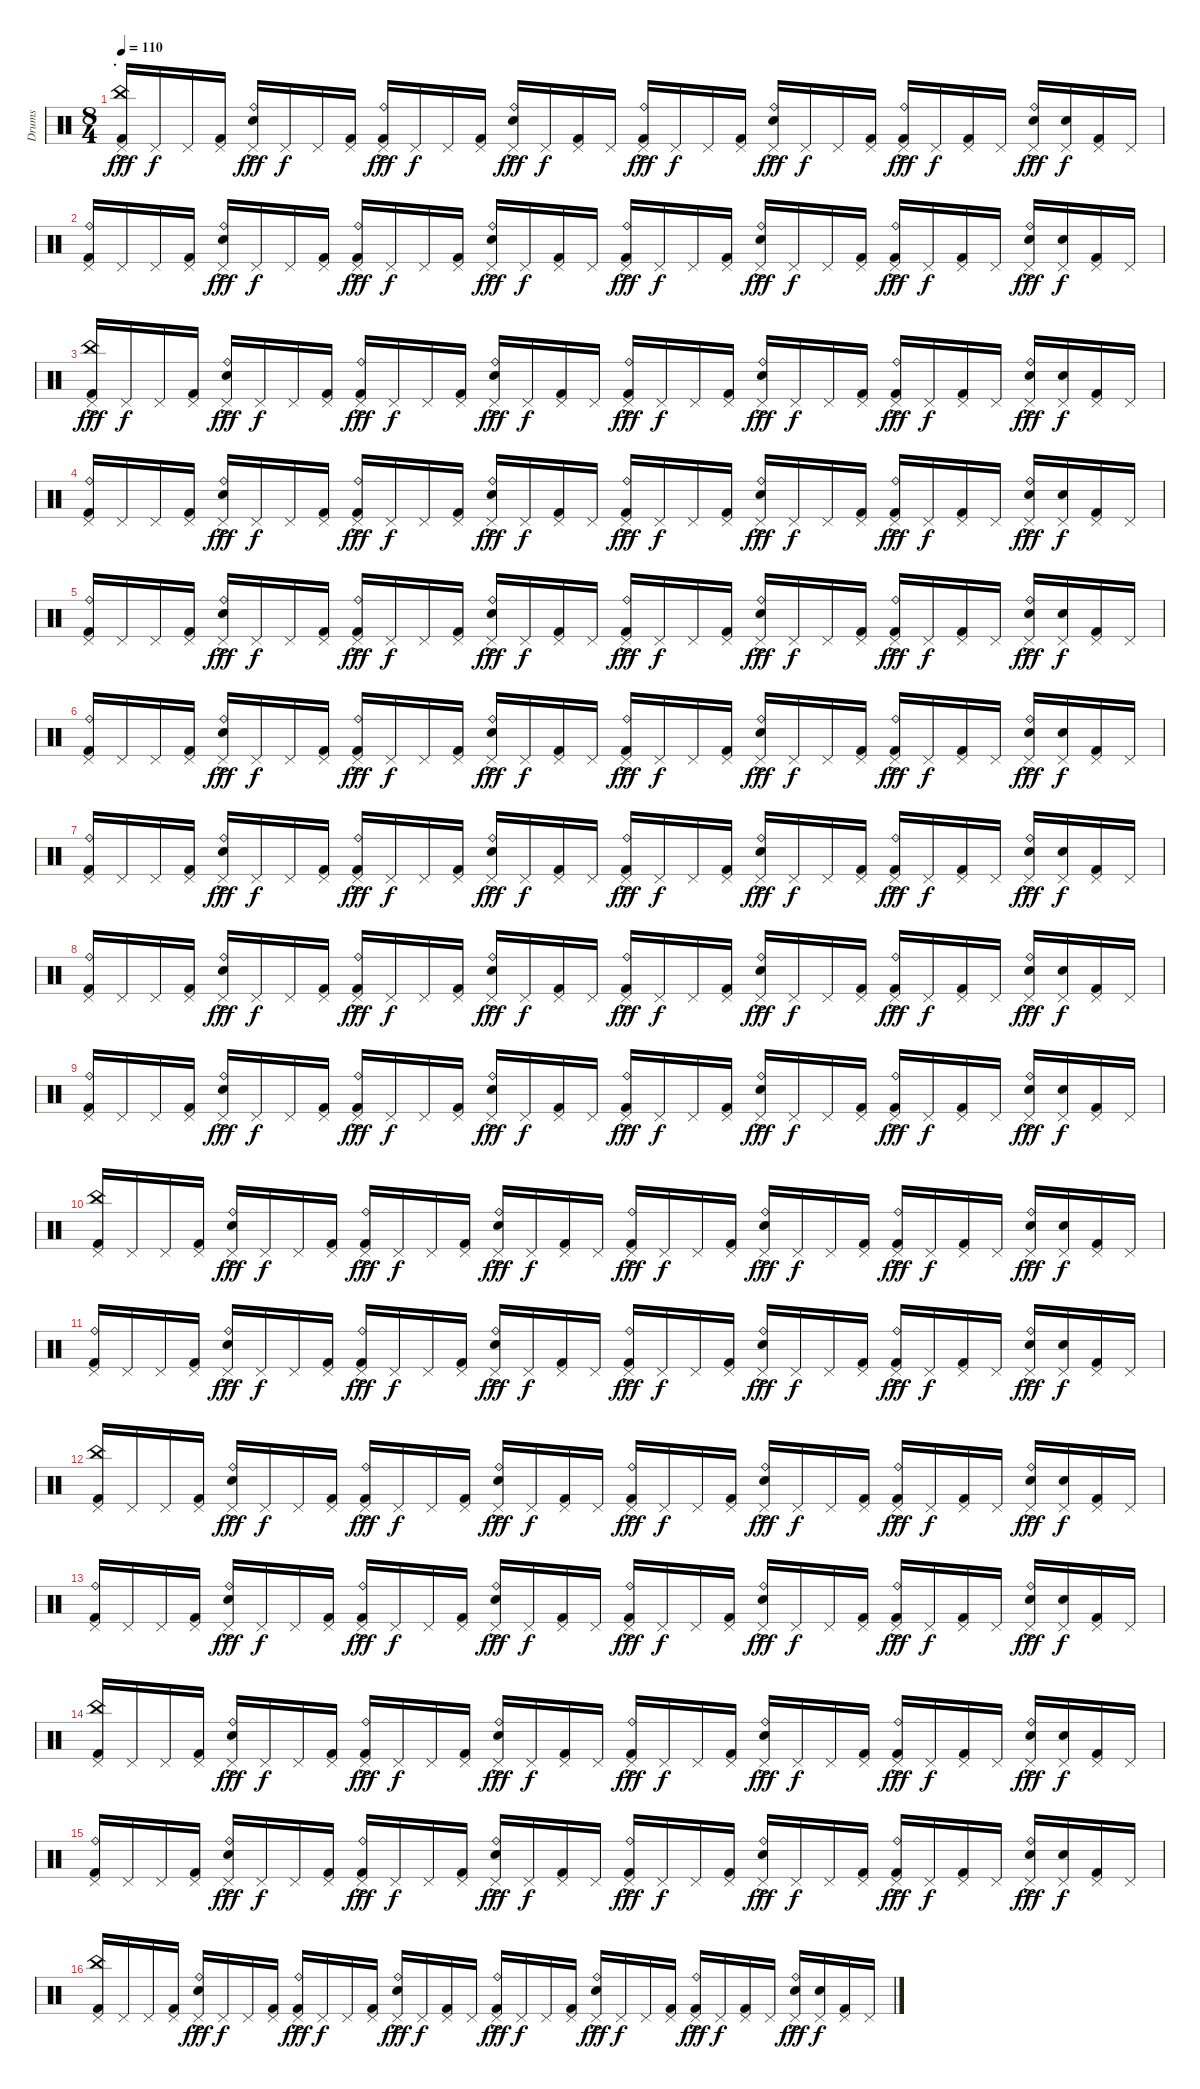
\track ("Drums" "Drums") {instrument percussion}
\staff {score}
\articulation defaults
\ts (8 4)
\section ("" ".")
\tempo 110
\clef neutral
\ks c
("Kick (hit) 2" "China (hit)"{ac} "Pedal Hi-Hat (hit)").16{dy fff} "Pedal Hi-Hat (hit)".16{dy f} "Pedal Hi-Hat (hit)".16 ("Kick (hit) 2" "Pedal Hi-Hat (hit)").16 ("Electric Snare (hit)" "Ride (bell)"{ac} "Pedal Hi-Hat (hit)").16{dy fff} "Pedal Hi-Hat (hit)".16{dy f} "Pedal Hi-Hat (hit)".16 ("Kick (hit) 2" "Pedal Hi-Hat (hit)").16 ("Kick (hit) 2" "Ride (bell)"{ac} "Pedal Hi-Hat (hit)").16{dy fff} "Pedal Hi-Hat (hit)".16{dy f} "Pedal Hi-Hat (hit)".16 ("Kick (hit) 2" "Pedal Hi-Hat (hit)").16 ("Electric Snare (hit)" "Ride (bell)"{ac} "Pedal Hi-Hat (hit)").16{dy fff} "Pedal Hi-Hat (hit)".16{dy f} ("Kick (hit) 2" "Pedal Hi-Hat (hit)").16 "Pedal Hi-Hat (hit)".16 ("Kick (hit) 2" "Ride (bell)"{ac} "Pedal Hi-Hat (hit)").16{dy fff} "Pedal Hi-Hat (hit)".16{dy f} "Pedal Hi-Hat (hit)".16 ("Kick (hit) 2" "Pedal Hi-Hat (hit)").16 ("Electric Snare (hit)" "Ride (bell)"{ac} "Pedal Hi-Hat (hit)").16{dy fff} "Pedal Hi-Hat (hit)".16{dy f} "Pedal Hi-Hat (hit)".16 ("Kick (hit) 2" "Pedal Hi-Hat (hit)").16 ("Kick (hit) 2" "Ride (bell)"{ac} "Pedal Hi-Hat (hit)").16{dy fff} "Pedal Hi-Hat (hit)".16{dy f} ("Kick (hit) 2" "Pedal Hi-Hat (hit)").16 "Pedal Hi-Hat (hit)".16 ("Electric Snare (hit)" "Ride (bell)"{ac} "Pedal Hi-Hat (hit)").16{dy fff} ("Electric Snare (hit)" "Pedal Hi-Hat (hit)").16{dy f} ("Kick (hit) 2" "Pedal Hi-Hat (hit)").16 "Pedal Hi-Hat (hit)".16 |
("Kick (hit) 2" "Ride (bell)" "Pedal Hi-Hat (hit)").16 "Pedal Hi-Hat (hit)".16 "Pedal Hi-Hat (hit)".16 ("Kick (hit) 2" "Pedal Hi-Hat (hit)").16 ("Electric Snare (hit)" "Ride (bell)"{ac} "Pedal Hi-Hat (hit)").16{dy fff} "Pedal Hi-Hat (hit)".16{dy f} "Pedal Hi-Hat (hit)".16 ("Kick (hit) 2" "Pedal Hi-Hat (hit)").16 ("Kick (hit) 2" "Ride (bell)"{ac} "Pedal Hi-Hat (hit)").16{dy fff} "Pedal Hi-Hat (hit)".16{dy f} "Pedal Hi-Hat (hit)".16 ("Kick (hit) 2" "Pedal Hi-Hat (hit)").16 ("Electric Snare (hit)" "Ride (bell)"{ac} "Pedal Hi-Hat (hit)").16{dy fff} "Pedal Hi-Hat (hit)".16{dy f} ("Kick (hit) 2" "Pedal Hi-Hat (hit)").16 "Pedal Hi-Hat (hit)".16 ("Kick (hit) 2" "Ride (bell)"{ac} "Pedal Hi-Hat (hit)").16{dy fff} "Pedal Hi-Hat (hit)".16{dy f} "Pedal Hi-Hat (hit)".16 ("Kick (hit) 2" "Pedal Hi-Hat (hit)").16 ("Electric Snare (hit)" "Ride (bell)"{ac} "Pedal Hi-Hat (hit)").16{dy fff} "Pedal Hi-Hat (hit)".16{dy f} "Pedal Hi-Hat (hit)".16 ("Kick (hit) 2" "Pedal Hi-Hat (hit)").16 ("Kick (hit) 2" "Ride (bell)"{ac} "Pedal Hi-Hat (hit)").16{dy fff} "Pedal Hi-Hat (hit)".16{dy f} ("Kick (hit) 2" "Pedal Hi-Hat (hit)").16 "Pedal Hi-Hat (hit)".16 ("Electric Snare (hit)" "Ride (bell)"{ac} "Pedal Hi-Hat (hit)").16{dy fff} ("Electric Snare (hit)" "Pedal Hi-Hat (hit)").16{dy f} ("Kick (hit) 2" "Pedal Hi-Hat (hit)").16 "Pedal Hi-Hat (hit)".16 |
("Kick (hit) 2" "China (hit)"{ac} "Pedal Hi-Hat (hit)").16{dy fff} "Pedal Hi-Hat (hit)".16{dy f} "Pedal Hi-Hat (hit)".16 ("Kick (hit) 2" "Pedal Hi-Hat (hit)").16 ("Electric Snare (hit)" "Ride (bell)"{ac} "Pedal Hi-Hat (hit)").16{dy fff} "Pedal Hi-Hat (hit)".16{dy f} "Pedal Hi-Hat (hit)".16 ("Kick (hit) 2" "Pedal Hi-Hat (hit)").16 ("Kick (hit) 2" "Ride (bell)"{ac} "Pedal Hi-Hat (hit)").16{dy fff} "Pedal Hi-Hat (hit)".16{dy f} "Pedal Hi-Hat (hit)".16 ("Kick (hit) 2" "Pedal Hi-Hat (hit)").16 ("Electric Snare (hit)" "Ride (bell)"{ac} "Pedal Hi-Hat (hit)").16{dy fff} "Pedal Hi-Hat (hit)".16{dy f} ("Kick (hit) 2" "Pedal Hi-Hat (hit)").16 "Pedal Hi-Hat (hit)".16 ("Kick (hit) 2" "Ride (bell)"{ac} "Pedal Hi-Hat (hit)").16{dy fff} "Pedal Hi-Hat (hit)".16{dy f} "Pedal Hi-Hat (hit)".16 ("Kick (hit) 2" "Pedal Hi-Hat (hit)").16 ("Electric Snare (hit)" "Ride (bell)"{ac} "Pedal Hi-Hat (hit)").16{dy fff} "Pedal Hi-Hat (hit)".16{dy f} "Pedal Hi-Hat (hit)".16 ("Kick (hit) 2" "Pedal Hi-Hat (hit)").16 ("Kick (hit) 2" "Ride (bell)"{ac} "Pedal Hi-Hat (hit)").16{dy fff} "Pedal Hi-Hat (hit)".16{dy f} ("Kick (hit) 2" "Pedal Hi-Hat (hit)").16 "Pedal Hi-Hat (hit)".16 ("Electric Snare (hit)" "Ride (bell)"{ac} "Pedal Hi-Hat (hit)").16{dy fff} ("Electric Snare (hit)" "Pedal Hi-Hat (hit)").16{dy f} ("Kick (hit) 2" "Pedal Hi-Hat (hit)").16 "Pedal Hi-Hat (hit)".16 |
("Kick (hit) 2" "Ride (bell)" "Pedal Hi-Hat (hit)").16 "Pedal Hi-Hat (hit)".16 "Pedal Hi-Hat (hit)".16 ("Kick (hit) 2" "Pedal Hi-Hat (hit)").16 ("Electric Snare (hit)" "Ride (bell)"{ac} "Pedal Hi-Hat (hit)").16{dy fff} "Pedal Hi-Hat (hit)".16{dy f} "Pedal Hi-Hat (hit)".16 ("Kick (hit) 2" "Pedal Hi-Hat (hit)").16 ("Kick (hit) 2" "Ride (bell)"{ac} "Pedal Hi-Hat (hit)").16{dy fff} "Pedal Hi-Hat (hit)".16{dy f} "Pedal Hi-Hat (hit)".16 ("Kick (hit) 2" "Pedal Hi-Hat (hit)").16 ("Electric Snare (hit)" "Ride (bell)"{ac} "Pedal Hi-Hat (hit)").16{dy fff} "Pedal Hi-Hat (hit)".16{dy f} ("Kick (hit) 2" "Pedal Hi-Hat (hit)").16 "Pedal Hi-Hat (hit)".16 ("Kick (hit) 2" "Ride (bell)"{ac} "Pedal Hi-Hat (hit)").16{dy fff} "Pedal Hi-Hat (hit)".16{dy f} "Pedal Hi-Hat (hit)".16 ("Kick (hit) 2" "Pedal Hi-Hat (hit)").16 ("Electric Snare (hit)" "Ride (bell)"{ac} "Pedal Hi-Hat (hit)").16{dy fff} "Pedal Hi-Hat (hit)".16{dy f} "Pedal Hi-Hat (hit)".16 ("Kick (hit) 2" "Pedal Hi-Hat (hit)").16 ("Kick (hit) 2" "Ride (bell)"{ac} "Pedal Hi-Hat (hit)").16{dy fff} "Pedal Hi-Hat (hit)".16{dy f} ("Kick (hit) 2" "Pedal Hi-Hat (hit)").16 "Pedal Hi-Hat (hit)".16 ("Electric Snare (hit)" "Ride (bell)"{ac} "Pedal Hi-Hat (hit)").16{dy fff} ("Electric Snare (hit)" "Pedal Hi-Hat (hit)").16{dy f} ("Kick (hit) 2" "Pedal Hi-Hat (hit)").16 "Pedal Hi-Hat (hit)".16 |
("Kick (hit) 2" "Ride (bell)" "Pedal Hi-Hat (hit)").16 "Pedal Hi-Hat (hit)".16 "Pedal Hi-Hat (hit)".16 ("Kick (hit) 2" "Pedal Hi-Hat (hit)").16 ("Electric Snare (hit)" "Ride (bell)"{ac} "Pedal Hi-Hat (hit)").16{dy fff} "Pedal Hi-Hat (hit)".16{dy f} "Pedal Hi-Hat (hit)".16 ("Kick (hit) 2" "Pedal Hi-Hat (hit)").16 ("Kick (hit) 2" "Ride (bell)"{ac} "Pedal Hi-Hat (hit)").16{dy fff} "Pedal Hi-Hat (hit)".16{dy f} "Pedal Hi-Hat (hit)".16 ("Kick (hit) 2" "Pedal Hi-Hat (hit)").16 ("Electric Snare (hit)" "Ride (bell)"{ac} "Pedal Hi-Hat (hit)").16{dy fff} "Pedal Hi-Hat (hit)".16{dy f} ("Kick (hit) 2" "Pedal Hi-Hat (hit)").16 "Pedal Hi-Hat (hit)".16 ("Kick (hit) 2" "Ride (bell)"{ac} "Pedal Hi-Hat (hit)").16{dy fff} "Pedal Hi-Hat (hit)".16{dy f} "Pedal Hi-Hat (hit)".16 ("Kick (hit) 2" "Pedal Hi-Hat (hit)").16 ("Electric Snare (hit)" "Ride (bell)"{ac} "Pedal Hi-Hat (hit)").16{dy fff} "Pedal Hi-Hat (hit)".16{dy f} "Pedal Hi-Hat (hit)".16 ("Kick (hit) 2" "Pedal Hi-Hat (hit)").16 ("Kick (hit) 2" "Ride (bell)"{ac} "Pedal Hi-Hat (hit)").16{dy fff} "Pedal Hi-Hat (hit)".16{dy f} ("Kick (hit) 2" "Pedal Hi-Hat (hit)").16 "Pedal Hi-Hat (hit)".16 ("Electric Snare (hit)" "Ride (bell)"{ac} "Pedal Hi-Hat (hit)").16{dy fff} ("Electric Snare (hit)" "Pedal Hi-Hat (hit)").16{dy f} ("Kick (hit) 2" "Pedal Hi-Hat (hit)").16 "Pedal Hi-Hat (hit)".16 |
("Kick (hit) 2" "Ride (bell)" "Pedal Hi-Hat (hit)").16 "Pedal Hi-Hat (hit)".16 "Pedal Hi-Hat (hit)".16 ("Kick (hit) 2" "Pedal Hi-Hat (hit)").16 ("Electric Snare (hit)" "Ride (bell)"{ac} "Pedal Hi-Hat (hit)").16{dy fff} "Pedal Hi-Hat (hit)".16{dy f} "Pedal Hi-Hat (hit)".16 ("Kick (hit) 2" "Pedal Hi-Hat (hit)").16 ("Kick (hit) 2" "Ride (bell)"{ac} "Pedal Hi-Hat (hit)").16{dy fff} "Pedal Hi-Hat (hit)".16{dy f} "Pedal Hi-Hat (hit)".16 ("Kick (hit) 2" "Pedal Hi-Hat (hit)").16 ("Electric Snare (hit)" "Ride (bell)"{ac} "Pedal Hi-Hat (hit)").16{dy fff} "Pedal Hi-Hat (hit)".16{dy f} ("Kick (hit) 2" "Pedal Hi-Hat (hit)").16 "Pedal Hi-Hat (hit)".16 ("Kick (hit) 2" "Ride (bell)"{ac} "Pedal Hi-Hat (hit)").16{dy fff} "Pedal Hi-Hat (hit)".16{dy f} "Pedal Hi-Hat (hit)".16 ("Kick (hit) 2" "Pedal Hi-Hat (hit)").16 ("Electric Snare (hit)" "Ride (bell)"{ac} "Pedal Hi-Hat (hit)").16{dy fff} "Pedal Hi-Hat (hit)".16{dy f} "Pedal Hi-Hat (hit)".16 ("Kick (hit) 2" "Pedal Hi-Hat (hit)").16 ("Kick (hit) 2" "Ride (bell)"{ac} "Pedal Hi-Hat (hit)").16{dy fff} "Pedal Hi-Hat (hit)".16{dy f} ("Kick (hit) 2" "Pedal Hi-Hat (hit)").16 "Pedal Hi-Hat (hit)".16 ("Electric Snare (hit)" "Ride (bell)"{ac} "Pedal Hi-Hat (hit)").16{dy fff} ("Electric Snare (hit)" "Pedal Hi-Hat (hit)").16{dy f} ("Kick (hit) 2" "Pedal Hi-Hat (hit)").16 "Pedal Hi-Hat (hit)".16 |
("Kick (hit) 2" "Ride (bell)" "Pedal Hi-Hat (hit)").16 "Pedal Hi-Hat (hit)".16 "Pedal Hi-Hat (hit)".16 ("Kick (hit) 2" "Pedal Hi-Hat (hit)").16 ("Electric Snare (hit)" "Ride (bell)"{ac} "Pedal Hi-Hat (hit)").16{dy fff} "Pedal Hi-Hat (hit)".16{dy f} "Pedal Hi-Hat (hit)".16 ("Kick (hit) 2" "Pedal Hi-Hat (hit)").16 ("Kick (hit) 2" "Ride (bell)"{ac} "Pedal Hi-Hat (hit)").16{dy fff} "Pedal Hi-Hat (hit)".16{dy f} "Pedal Hi-Hat (hit)".16 ("Kick (hit) 2" "Pedal Hi-Hat (hit)").16 ("Electric Snare (hit)" "Ride (bell)"{ac} "Pedal Hi-Hat (hit)").16{dy fff} "Pedal Hi-Hat (hit)".16{dy f} ("Kick (hit) 2" "Pedal Hi-Hat (hit)").16 "Pedal Hi-Hat (hit)".16 ("Kick (hit) 2" "Ride (bell)"{ac} "Pedal Hi-Hat (hit)").16{dy fff} "Pedal Hi-Hat (hit)".16{dy f} "Pedal Hi-Hat (hit)".16 ("Kick (hit) 2" "Pedal Hi-Hat (hit)").16 ("Electric Snare (hit)" "Ride (bell)"{ac} "Pedal Hi-Hat (hit)").16{dy fff} "Pedal Hi-Hat (hit)".16{dy f} "Pedal Hi-Hat (hit)".16 ("Kick (hit) 2" "Pedal Hi-Hat (hit)").16 ("Kick (hit) 2" "Ride (bell)"{ac} "Pedal Hi-Hat (hit)").16{dy fff} "Pedal Hi-Hat (hit)".16{dy f} ("Kick (hit) 2" "Pedal Hi-Hat (hit)").16 "Pedal Hi-Hat (hit)".16 ("Electric Snare (hit)" "Ride (bell)"{ac} "Pedal Hi-Hat (hit)").16{dy fff} ("Electric Snare (hit)" "Pedal Hi-Hat (hit)").16{dy f} ("Kick (hit) 2" "Pedal Hi-Hat (hit)").16 "Pedal Hi-Hat (hit)".16 |
("Kick (hit) 2" "Ride (bell)" "Pedal Hi-Hat (hit)").16 "Pedal Hi-Hat (hit)".16 "Pedal Hi-Hat (hit)".16 ("Kick (hit) 2" "Pedal Hi-Hat (hit)").16 ("Electric Snare (hit)" "Ride (bell)"{ac} "Pedal Hi-Hat (hit)").16{dy fff} "Pedal Hi-Hat (hit)".16{dy f} "Pedal Hi-Hat (hit)".16 ("Kick (hit) 2" "Pedal Hi-Hat (hit)").16 ("Kick (hit) 2" "Ride (bell)"{ac} "Pedal Hi-Hat (hit)").16{dy fff} "Pedal Hi-Hat (hit)".16{dy f} "Pedal Hi-Hat (hit)".16 ("Kick (hit) 2" "Pedal Hi-Hat (hit)").16 ("Electric Snare (hit)" "Ride (bell)"{ac} "Pedal Hi-Hat (hit)").16{dy fff} "Pedal Hi-Hat (hit)".16{dy f} ("Kick (hit) 2" "Pedal Hi-Hat (hit)").16 "Pedal Hi-Hat (hit)".16 ("Kick (hit) 2" "Ride (bell)"{ac} "Pedal Hi-Hat (hit)").16{dy fff} "Pedal Hi-Hat (hit)".16{dy f} "Pedal Hi-Hat (hit)".16 ("Kick (hit) 2" "Pedal Hi-Hat (hit)").16 ("Electric Snare (hit)" "Ride (bell)"{ac} "Pedal Hi-Hat (hit)").16{dy fff} "Pedal Hi-Hat (hit)".16{dy f} "Pedal Hi-Hat (hit)".16 ("Kick (hit) 2" "Pedal Hi-Hat (hit)").16 ("Kick (hit) 2" "Ride (bell)"{ac} "Pedal Hi-Hat (hit)").16{dy fff} "Pedal Hi-Hat (hit)".16{dy f} ("Kick (hit) 2" "Pedal Hi-Hat (hit)").16 "Pedal Hi-Hat (hit)".16 ("Electric Snare (hit)" "Ride (bell)"{ac} "Pedal Hi-Hat (hit)").16{dy fff} ("Electric Snare (hit)" "Pedal Hi-Hat (hit)").16{dy f} ("Kick (hit) 2" "Pedal Hi-Hat (hit)").16 "Pedal Hi-Hat (hit)".16 |
("Kick (hit) 2" "Ride (bell)" "Pedal Hi-Hat (hit)").16 "Pedal Hi-Hat (hit)".16 "Pedal Hi-Hat (hit)".16 ("Kick (hit) 2" "Pedal Hi-Hat (hit)").16 ("Electric Snare (hit)" "Ride (bell)"{ac} "Pedal Hi-Hat (hit)").16{dy fff} "Pedal Hi-Hat (hit)".16{dy f} "Pedal Hi-Hat (hit)".16 ("Kick (hit) 2" "Pedal Hi-Hat (hit)").16 ("Kick (hit) 2" "Ride (bell)"{ac} "Pedal Hi-Hat (hit)").16{dy fff} "Pedal Hi-Hat (hit)".16{dy f} "Pedal Hi-Hat (hit)".16 ("Kick (hit) 2" "Pedal Hi-Hat (hit)").16 ("Electric Snare (hit)" "Ride (bell)"{ac} "Pedal Hi-Hat (hit)").16{dy fff} "Pedal Hi-Hat (hit)".16{dy f} ("Kick (hit) 2" "Pedal Hi-Hat (hit)").16 "Pedal Hi-Hat (hit)".16 ("Kick (hit) 2" "Ride (bell)"{ac} "Pedal Hi-Hat (hit)").16{dy fff} "Pedal Hi-Hat (hit)".16{dy f} "Pedal Hi-Hat (hit)".16 ("Kick (hit) 2" "Pedal Hi-Hat (hit)").16 ("Electric Snare (hit)" "Ride (bell)"{ac} "Pedal Hi-Hat (hit)").16{dy fff} "Pedal Hi-Hat (hit)".16{dy f} "Pedal Hi-Hat (hit)".16 ("Kick (hit) 2" "Pedal Hi-Hat (hit)").16 ("Kick (hit) 2" "Ride (bell)"{ac} "Pedal Hi-Hat (hit)").16{dy fff} "Pedal Hi-Hat (hit)".16{dy f} ("Kick (hit) 2" "Pedal Hi-Hat (hit)").16 "Pedal Hi-Hat (hit)".16 ("Electric Snare (hit)" "Ride (bell)"{ac} "Pedal Hi-Hat (hit)").16{dy fff} ("Electric Snare (hit)" "Pedal Hi-Hat (hit)").16{dy f} ("Kick (hit) 2" "Pedal Hi-Hat (hit)").16 "Pedal Hi-Hat (hit)".16 |
("Kick (hit) 2" "China (hit)" "Pedal Hi-Hat (hit)").16 "Pedal Hi-Hat (hit)".16 "Pedal Hi-Hat (hit)".16 ("Kick (hit) 2" "Pedal Hi-Hat (hit)").16 ("Electric Snare (hit)" "Ride (bell)"{ac} "Pedal Hi-Hat (hit)").16{dy fff} "Pedal Hi-Hat (hit)".16{dy f} "Pedal Hi-Hat (hit)".16 ("Kick (hit) 2" "Pedal Hi-Hat (hit)").16 ("Kick (hit) 2" "Ride (bell)"{ac} "Pedal Hi-Hat (hit)").16{dy fff} "Pedal Hi-Hat (hit)".16{dy f} "Pedal Hi-Hat (hit)".16 ("Kick (hit) 2" "Pedal Hi-Hat (hit)").16 ("Electric Snare (hit)" "Ride (bell)"{ac} "Pedal Hi-Hat (hit)").16{dy fff} "Pedal Hi-Hat (hit)".16{dy f} ("Kick (hit) 2" "Pedal Hi-Hat (hit)").16 "Pedal Hi-Hat (hit)".16 ("Kick (hit) 2" "Ride (bell)"{ac} "Pedal Hi-Hat (hit)").16{dy fff} "Pedal Hi-Hat (hit)".16{dy f} "Pedal Hi-Hat (hit)".16 ("Kick (hit) 2" "Pedal Hi-Hat (hit)").16 ("Electric Snare (hit)" "Ride (bell)"{ac} "Pedal Hi-Hat (hit)").16{dy fff} "Pedal Hi-Hat (hit)".16{dy f} "Pedal Hi-Hat (hit)".16 ("Kick (hit) 2" "Pedal Hi-Hat (hit)").16 ("Kick (hit) 2" "Ride (bell)"{ac} "Pedal Hi-Hat (hit)").16{dy fff} "Pedal Hi-Hat (hit)".16{dy f} ("Kick (hit) 2" "Pedal Hi-Hat (hit)").16 "Pedal Hi-Hat (hit)".16 ("Electric Snare (hit)" "Ride (bell)"{ac} "Pedal Hi-Hat (hit)").16{dy fff} ("Electric Snare (hit)" "Pedal Hi-Hat (hit)").16{dy f} ("Kick (hit) 2" "Pedal Hi-Hat (hit)").16 "Pedal Hi-Hat (hit)".16 |
("Kick (hit) 2" "Ride (bell)" "Pedal Hi-Hat (hit)").16 "Pedal Hi-Hat (hit)".16 "Pedal Hi-Hat (hit)".16 ("Kick (hit) 2" "Pedal Hi-Hat (hit)").16 ("Electric Snare (hit)" "Ride (bell)"{ac} "Pedal Hi-Hat (hit)").16{dy fff} "Pedal Hi-Hat (hit)".16{dy f} "Pedal Hi-Hat (hit)".16 ("Kick (hit) 2" "Pedal Hi-Hat (hit)").16 ("Kick (hit) 2" "Ride (bell)"{ac} "Pedal Hi-Hat (hit)").16{dy fff} "Pedal Hi-Hat (hit)".16{dy f} "Pedal Hi-Hat (hit)".16 ("Kick (hit) 2" "Pedal Hi-Hat (hit)").16 ("Electric Snare (hit)" "Ride (bell)"{ac} "Pedal Hi-Hat (hit)").16{dy fff} "Pedal Hi-Hat (hit)".16{dy f} ("Kick (hit) 2" "Pedal Hi-Hat (hit)").16 "Pedal Hi-Hat (hit)".16 ("Kick (hit) 2" "Ride (bell)"{ac} "Pedal Hi-Hat (hit)").16{dy fff} "Pedal Hi-Hat (hit)".16{dy f} "Pedal Hi-Hat (hit)".16 ("Kick (hit) 2" "Pedal Hi-Hat (hit)").16 ("Electric Snare (hit)" "Ride (bell)"{ac} "Pedal Hi-Hat (hit)").16{dy fff} "Pedal Hi-Hat (hit)".16{dy f} "Pedal Hi-Hat (hit)".16 ("Kick (hit) 2" "Pedal Hi-Hat (hit)").16 ("Kick (hit) 2" "Ride (bell)"{ac} "Pedal Hi-Hat (hit)").16{dy fff} "Pedal Hi-Hat (hit)".16{dy f} ("Kick (hit) 2" "Pedal Hi-Hat (hit)").16 "Pedal Hi-Hat (hit)".16 ("Electric Snare (hit)" "Ride (bell)"{ac} "Pedal Hi-Hat (hit)").16{dy fff} ("Electric Snare (hit)" "Pedal Hi-Hat (hit)").16{dy f} ("Kick (hit) 2" "Pedal Hi-Hat (hit)").16 "Pedal Hi-Hat (hit)".16 |
("Kick (hit) 2" "China (hit)" "Pedal Hi-Hat (hit)").16 "Pedal Hi-Hat (hit)".16 "Pedal Hi-Hat (hit)".16 ("Kick (hit) 2" "Pedal Hi-Hat (hit)").16 ("Electric Snare (hit)" "Ride (bell)"{ac} "Pedal Hi-Hat (hit)").16{dy fff} "Pedal Hi-Hat (hit)".16{dy f} "Pedal Hi-Hat (hit)".16 ("Kick (hit) 2" "Pedal Hi-Hat (hit)").16 ("Kick (hit) 2" "Ride (bell)"{ac} "Pedal Hi-Hat (hit)").16{dy fff} "Pedal Hi-Hat (hit)".16{dy f} "Pedal Hi-Hat (hit)".16 ("Kick (hit) 2" "Pedal Hi-Hat (hit)").16 ("Electric Snare (hit)" "Ride (bell)"{ac} "Pedal Hi-Hat (hit)").16{dy fff} "Pedal Hi-Hat (hit)".16{dy f} ("Kick (hit) 2" "Pedal Hi-Hat (hit)").16 "Pedal Hi-Hat (hit)".16 ("Kick (hit) 2" "Ride (bell)"{ac} "Pedal Hi-Hat (hit)").16{dy fff} "Pedal Hi-Hat (hit)".16{dy f} "Pedal Hi-Hat (hit)".16 ("Kick (hit) 2" "Pedal Hi-Hat (hit)").16 ("Electric Snare (hit)" "Ride (bell)"{ac} "Pedal Hi-Hat (hit)").16{dy fff} "Pedal Hi-Hat (hit)".16{dy f} "Pedal Hi-Hat (hit)".16 ("Kick (hit) 2" "Pedal Hi-Hat (hit)").16 ("Kick (hit) 2" "Ride (bell)"{ac} "Pedal Hi-Hat (hit)").16{dy fff} "Pedal Hi-Hat (hit)".16{dy f} ("Kick (hit) 2" "Pedal Hi-Hat (hit)").16 "Pedal Hi-Hat (hit)".16 ("Electric Snare (hit)" "Ride (bell)"{ac} "Pedal Hi-Hat (hit)").16{dy fff} ("Electric Snare (hit)" "Pedal Hi-Hat (hit)").16{dy f} ("Kick (hit) 2" "Pedal Hi-Hat (hit)").16 "Pedal Hi-Hat (hit)".16 |
("Kick (hit) 2" "Ride (bell)" "Pedal Hi-Hat (hit)").16 "Pedal Hi-Hat (hit)".16 "Pedal Hi-Hat (hit)".16 ("Kick (hit) 2" "Pedal Hi-Hat (hit)").16 ("Electric Snare (hit)" "Ride (bell)"{ac} "Pedal Hi-Hat (hit)").16{dy fff} "Pedal Hi-Hat (hit)".16{dy f} "Pedal Hi-Hat (hit)".16 ("Kick (hit) 2" "Pedal Hi-Hat (hit)").16 ("Kick (hit) 2" "Ride (bell)"{ac} "Pedal Hi-Hat (hit)").16{dy fff} "Pedal Hi-Hat (hit)".16{dy f} "Pedal Hi-Hat (hit)".16 ("Kick (hit) 2" "Pedal Hi-Hat (hit)").16 ("Electric Snare (hit)" "Ride (bell)"{ac} "Pedal Hi-Hat (hit)").16{dy fff} "Pedal Hi-Hat (hit)".16{dy f} ("Kick (hit) 2" "Pedal Hi-Hat (hit)").16 "Pedal Hi-Hat (hit)".16 ("Kick (hit) 2" "Ride (bell)"{ac} "Pedal Hi-Hat (hit)").16{dy fff} "Pedal Hi-Hat (hit)".16{dy f} "Pedal Hi-Hat (hit)".16 ("Kick (hit) 2" "Pedal Hi-Hat (hit)").16 ("Electric Snare (hit)" "Ride (bell)"{ac} "Pedal Hi-Hat (hit)").16{dy fff} "Pedal Hi-Hat (hit)".16{dy f} "Pedal Hi-Hat (hit)".16 ("Kick (hit) 2" "Pedal Hi-Hat (hit)").16 ("Kick (hit) 2" "Ride (bell)"{ac} "Pedal Hi-Hat (hit)").16{dy fff} "Pedal Hi-Hat (hit)".16{dy f} ("Kick (hit) 2" "Pedal Hi-Hat (hit)").16 "Pedal Hi-Hat (hit)".16 ("Electric Snare (hit)" "Ride (bell)"{ac} "Pedal Hi-Hat (hit)").16{dy fff} ("Electric Snare (hit)" "Pedal Hi-Hat (hit)").16{dy f} ("Kick (hit) 2" "Pedal Hi-Hat (hit)").16 "Pedal Hi-Hat (hit)".16 |
("Kick (hit) 2" "China (hit)" "Pedal Hi-Hat (hit)").16 "Pedal Hi-Hat (hit)".16 "Pedal Hi-Hat (hit)".16 ("Kick (hit) 2" "Pedal Hi-Hat (hit)").16 ("Electric Snare (hit)" "Ride (bell)"{ac} "Pedal Hi-Hat (hit)").16{dy fff} "Pedal Hi-Hat (hit)".16{dy f} "Pedal Hi-Hat (hit)".16 ("Kick (hit) 2" "Pedal Hi-Hat (hit)").16 ("Kick (hit) 2" "Ride (bell)"{ac} "Pedal Hi-Hat (hit)").16{dy fff} "Pedal Hi-Hat (hit)".16{dy f} "Pedal Hi-Hat (hit)".16 ("Kick (hit) 2" "Pedal Hi-Hat (hit)").16 ("Electric Snare (hit)" "Ride (bell)"{ac} "Pedal Hi-Hat (hit)").16{dy fff} "Pedal Hi-Hat (hit)".16{dy f} ("Kick (hit) 2" "Pedal Hi-Hat (hit)").16 "Pedal Hi-Hat (hit)".16 ("Kick (hit) 2" "Ride (bell)"{ac} "Pedal Hi-Hat (hit)").16{dy fff} "Pedal Hi-Hat (hit)".16{dy f} "Pedal Hi-Hat (hit)".16 ("Kick (hit) 2" "Pedal Hi-Hat (hit)").16 ("Electric Snare (hit)" "Ride (bell)"{ac} "Pedal Hi-Hat (hit)").16{dy fff} "Pedal Hi-Hat (hit)".16{dy f} "Pedal Hi-Hat (hit)".16 ("Kick (hit) 2" "Pedal Hi-Hat (hit)").16 ("Kick (hit) 2" "Ride (bell)"{ac} "Pedal Hi-Hat (hit)").16{dy fff} "Pedal Hi-Hat (hit)".16{dy f} ("Kick (hit) 2" "Pedal Hi-Hat (hit)").16 "Pedal Hi-Hat (hit)".16 ("Electric Snare (hit)" "Ride (bell)"{ac} "Pedal Hi-Hat (hit)").16{dy fff} ("Electric Snare (hit)" "Pedal Hi-Hat (hit)").16{dy f} ("Kick (hit) 2" "Pedal Hi-Hat (hit)").16 "Pedal Hi-Hat (hit)".16 |
("Kick (hit) 2" "Ride (bell)" "Pedal Hi-Hat (hit)").16 "Pedal Hi-Hat (hit)".16 "Pedal Hi-Hat (hit)".16 ("Kick (hit) 2" "Pedal Hi-Hat (hit)").16 ("Electric Snare (hit)" "Ride (bell)"{ac} "Pedal Hi-Hat (hit)").16{dy fff} "Pedal Hi-Hat (hit)".16{dy f} "Pedal Hi-Hat (hit)".16 ("Kick (hit) 2" "Pedal Hi-Hat (hit)").16 ("Kick (hit) 2" "Ride (bell)"{ac} "Pedal Hi-Hat (hit)").16{dy fff} "Pedal Hi-Hat (hit)".16{dy f} "Pedal Hi-Hat (hit)".16 ("Kick (hit) 2" "Pedal Hi-Hat (hit)").16 ("Electric Snare (hit)" "Ride (bell)"{ac} "Pedal Hi-Hat (hit)").16{dy fff} "Pedal Hi-Hat (hit)".16{dy f} ("Kick (hit) 2" "Pedal Hi-Hat (hit)").16 "Pedal Hi-Hat (hit)".16 ("Kick (hit) 2" "Ride (bell)"{ac} "Pedal Hi-Hat (hit)").16{dy fff} "Pedal Hi-Hat (hit)".16{dy f} "Pedal Hi-Hat (hit)".16 ("Kick (hit) 2" "Pedal Hi-Hat (hit)").16 ("Electric Snare (hit)" "Ride (bell)"{ac} "Pedal Hi-Hat (hit)").16{dy fff} "Pedal Hi-Hat (hit)".16{dy f} "Pedal Hi-Hat (hit)".16 ("Kick (hit) 2" "Pedal Hi-Hat (hit)").16 ("Kick (hit) 2" "Ride (bell)"{ac} "Pedal Hi-Hat (hit)").16{dy fff} "Pedal Hi-Hat (hit)".16{dy f} ("Kick (hit) 2" "Pedal Hi-Hat (hit)").16 "Pedal Hi-Hat (hit)".16 ("Electric Snare (hit)" "Ride (bell)"{ac} "Pedal Hi-Hat (hit)").16{dy fff} ("Electric Snare (hit)" "Pedal Hi-Hat (hit)").16{dy f} ("Kick (hit) 2" "Pedal Hi-Hat (hit)").16 "Pedal Hi-Hat (hit)".16 |
("Kick (hit) 2" "China (hit)" "Pedal Hi-Hat (hit)").16 "Pedal Hi-Hat (hit)".16 "Pedal Hi-Hat (hit)".16 ("Kick (hit) 2" "Pedal Hi-Hat (hit)").16 ("Electric Snare (hit)" "Ride (bell)"{ac} "Pedal Hi-Hat (hit)").16{dy fff} "Pedal Hi-Hat (hit)".16{dy f} "Pedal Hi-Hat (hit)".16 ("Kick (hit) 2" "Pedal Hi-Hat (hit)").16 ("Kick (hit) 2" "Ride (bell)"{ac} "Pedal Hi-Hat (hit)").16{dy fff} "Pedal Hi-Hat (hit)".16{dy f} "Pedal Hi-Hat (hit)".16 ("Kick (hit) 2" "Pedal Hi-Hat (hit)").16 ("Electric Snare (hit)" "Ride (bell)"{ac} "Pedal Hi-Hat (hit)").16{dy fff} "Pedal Hi-Hat (hit)".16{dy f} ("Kick (hit) 2" "Pedal Hi-Hat (hit)").16 "Pedal Hi-Hat (hit)".16 ("Kick (hit) 2" "Ride (bell)"{ac} "Pedal Hi-Hat (hit)").16{dy fff} "Pedal Hi-Hat (hit)".16{dy f} "Pedal Hi-Hat (hit)".16 ("Kick (hit) 2" "Pedal Hi-Hat (hit)").16 ("Electric Snare (hit)" "Ride (bell)"{ac} "Pedal Hi-Hat (hit)").16{dy fff} "Pedal Hi-Hat (hit)".16{dy f} "Pedal Hi-Hat (hit)".16 ("Kick (hit) 2" "Pedal Hi-Hat (hit)").16 ("Kick (hit) 2" "Ride (bell)"{ac} "Pedal Hi-Hat (hit)").16{dy fff} "Pedal Hi-Hat (hit)".16{dy f} ("Kick (hit) 2" "Pedal Hi-Hat (hit)").16 "Pedal Hi-Hat (hit)".16 ("Electric Snare (hit)" "Ride (bell)"{ac} "Pedal Hi-Hat (hit)").16{dy fff} ("Electric Snare (hit)" "Pedal Hi-Hat (hit)").16{dy f} ("Kick (hit) 2" "Pedal Hi-Hat (hit)").16 "Pedal Hi-Hat (hit)".16
